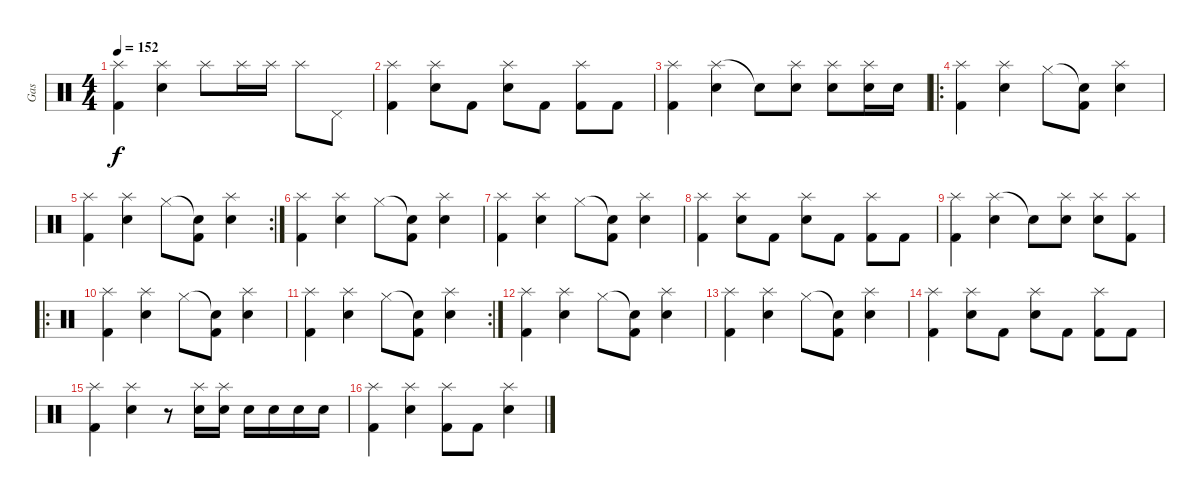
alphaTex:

\track ("Gas" "Gas") {instrument percussion}
\staff {score}
\articulation defaults
\ts (4 4)
\tempo 152
\clef neutral
\ks c
("Splash (hit)" "Kick (hit) 2").4{dy f} ("Splash (hit)" "Electric Snare (hit)").4 "Splash (hit)".8 "Splash (hit)".16 "Splash (hit)".16 "Splash (hit)".8 "Pedal Hi-Hat (hit)".8 |
("Splash (hit)" "Kick (hit) 2").4 ("Splash (hit)" "Electric Snare (hit)").8 "Kick (hit) 2".8 ("Splash (hit)" "Electric Snare (hit)").8 "Kick (hit) 2".8 ("Splash (hit)" "Kick (hit) 2").8 "Kick (hit) 2".8 |
("Splash (hit)" "Kick (hit) 2").4 ("Splash (hit)" "Electric Snare (hit)").4 "Electric Snare (hit)"{t}.8 ("Splash (hit)" "Electric Snare (hit)").8 ("Splash (hit)" "Electric Snare (hit)").8 ("Splash (hit)" "Electric Snare (hit)").16 "Electric Snare (hit)".16 |
\ro
("Splash (hit)" "Kick (hit) 2").4 ("Splash (hit)" "Electric Snare (hit)").4 "Hi-Hat (closed)".8 ("Snare (hit)"{t} "Kick (hit) 2").8 ("Splash (hit)" "Electric Snare (hit)").4 |
\rc 2
("Splash (hit)" "Kick (hit) 2").4 ("Splash (hit)" "Electric Snare (hit)").4 "Hi-Hat (closed)".8 ("Snare (hit)"{t} "Kick (hit) 2").8 ("Splash (hit)" "Electric Snare (hit)").4 |
("Splash (hit)" "Kick (hit) 2").4 ("Splash (hit)" "Electric Snare (hit)").4 "Hi-Hat (closed)".8 ("Snare (hit)"{t} "Kick (hit) 2").8 ("Splash (hit)" "Electric Snare (hit)").4 |
("Splash (hit)" "Kick (hit) 2").4 ("Splash (hit)" "Electric Snare (hit)").4 "Hi-Hat (closed)".8 ("Snare (hit)"{t} "Kick (hit) 2").8 ("Splash (hit)" "Electric Snare (hit)").4 |
("Splash (hit)" "Kick (hit) 2").4 ("Splash (hit)" "Electric Snare (hit)").8 "Kick (hit) 2".8 ("Splash (hit)" "Electric Snare (hit)").8 "Kick (hit) 2".8 ("Splash (hit)" "Kick (hit) 2").8 "Kick (hit) 2".8 |
("Splash (hit)" "Kick (hit) 2").4 ("Splash (hit)" "Electric Snare (hit)").4 "Electric Snare (hit)"{t}.8 ("Splash (hit)" "Electric Snare (hit)").8 ("Splash (hit)" "Electric Snare (hit)").8 ("Splash (hit)" "Kick (hit) 2").8 |
\ro
("Splash (hit)" "Kick (hit) 2").4 ("Splash (hit)" "Electric Snare (hit)").4 "Hi-Hat (closed)".8 ("Snare (hit)"{t} "Kick (hit) 2").8 ("Splash (hit)" "Electric Snare (hit)").4 |
\rc 2
("Splash (hit)" "Kick (hit) 2").4 ("Splash (hit)" "Electric Snare (hit)").4 "Hi-Hat (closed)".8 ("Snare (hit)"{t} "Kick (hit) 2").8 ("Splash (hit)" "Electric Snare (hit)").4 |
("Splash (hit)" "Kick (hit) 2").4 ("Splash (hit)" "Electric Snare (hit)").4 "Hi-Hat (closed)".8 ("Snare (hit)"{t} "Kick (hit) 2").8 ("Splash (hit)" "Electric Snare (hit)").4 |
("Splash (hit)" "Kick (hit) 2").4 ("Splash (hit)" "Electric Snare (hit)").4 "Hi-Hat (closed)".8 ("Snare (hit)"{t} "Kick (hit) 2").8 ("Splash (hit)" "Electric Snare (hit)").4 |
("Splash (hit)" "Kick (hit) 2").4 ("Splash (hit)" "Electric Snare (hit)").8 "Kick (hit) 2".8 ("Splash (hit)" "Electric Snare (hit)").8 "Kick (hit) 2".8 ("Splash (hit)" "Kick (hit) 2").8 "Kick (hit) 2".8 |
("Splash (hit)" "Kick (hit) 2").4 ("Splash (hit)" "Electric Snare (hit)").4 r.8 ("Splash (hit)" "Electric Snare (hit)").16 ("Splash (hit)" "Electric Snare (hit)").16 "Electric Snare (hit)".16 "Electric Snare (hit)".16 "Electric Snare (hit)".16 "Electric Snare (hit)".16 |
("Splash (hit)" "Kick (hit) 2").4 ("Splash (hit)" "Electric Snare (hit)").4 ("Splash (hit)" "Kick (hit) 2").8 "Kick (hit) 2".8 ("Splash (hit)" "Electric Snare (hit)").4
